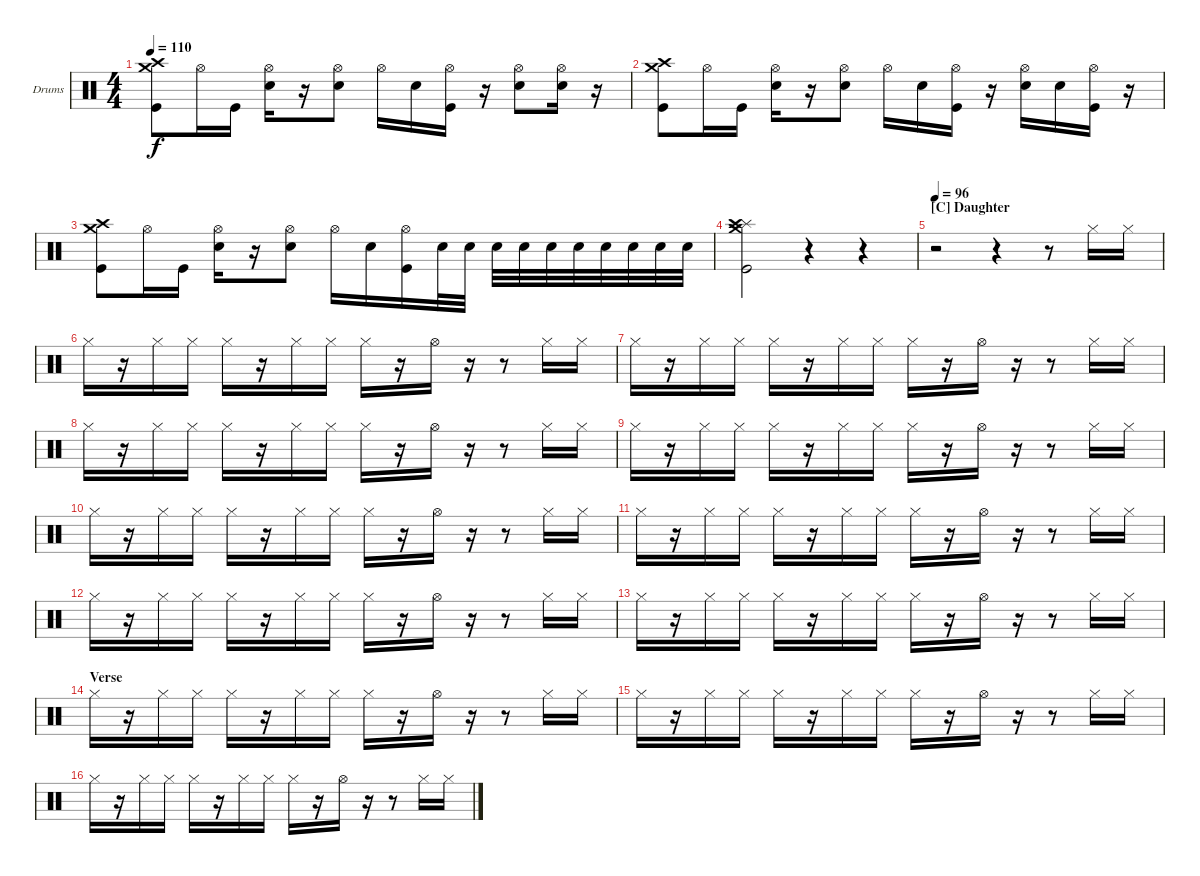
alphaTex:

\defaultSystemsLayout 4
\bracketExtendMode nobrackets
\firstSystemTrackNameOrientation horizontal
\otherSystemsTrackNameOrientation horizontal
\track ("Dave Abbruzzese" "Drums") {solo instrument percussion}
\staff {score}
\articulation defaults
\ts (4 4)
\tempo 110
\clef neutral
\ks c
("Crash high (hit)" "Kick (hit)" "Crash medium (hit)").8{dy f} "Hi-Hat (open)".16 "Kick (hit)".16 ("Snare (hit) 2" "Hi-Hat (open)").16 r.16 ("Snare (hit) 2" "Hi-Hat (open)").8 "Hi-Hat (open)".16 "Snare (hit) 2".16 ("Kick (hit)" "Hi-Hat (open)").16 r.16 ("Snare (hit) 2" "Hi-Hat (open)").8 ("Snare (hit) 2" "Hi-Hat (open)").16 r.16 |
("Crash high (hit)" "Kick (hit)" "Crash medium (hit)").8 "Hi-Hat (open)".16 "Kick (hit)".16 ("Snare (hit) 2" "Hi-Hat (open)").16 r.16 ("Snare (hit) 2" "Hi-Hat (open)").8 "Hi-Hat (open)".16 "Snare (hit) 2".16 ("Kick (hit)" "Hi-Hat (open)").16 r.16 ("Snare (hit) 2" "Hi-Hat (open)").16 "Snare (hit) 2".16 ("Kick (hit)" "Hi-Hat (open)").16 r.16 |
("Crash high (hit)" "Kick (hit)" "Crash medium (hit)").8 "Hi-Hat (open)".16 "Kick (hit)".16 ("Snare (hit) 2" "Hi-Hat (open)").16 r.16 ("Snare (hit) 2" "Hi-Hat (open)").8 "Hi-Hat (open)".16 "Snare (hit) 2".16 ("Kick (hit)" "Hi-Hat (open)").16 "Snare (hit) 2".32 "Snare (hit) 2".32 "Snare (hit) 2".32 "Snare (hit) 2".32 "Snare (hit) 2".32 "Snare (hit) 2".32 "Snare (hit) 2".32 "Snare (hit) 2".32 "Snare (hit) 2".32 "Snare (hit) 2".32 |
("Splash (hit)" "Kick (hit)" "Crash medium (hit)" "Crash high (hit)").2 r.4 r.4 |
\section ("C" "Daughter")
\tempo 96
r.2 r.4 r.8 "Hi-Hat (closed)".16 "Hi-Hat (closed)".16 |
"Hi-Hat (closed)".16 r.16 "Hi-Hat (closed)".16 "Hi-Hat (closed)".16 "Hi-Hat (closed)".16 r.16 "Hi-Hat (closed)".16 "Hi-Hat (closed)".16 "Hi-Hat (closed)".16 r.16 "Hi-Hat (open)".16 r.16 r.8 "Hi-Hat (closed)".16 "Hi-Hat (closed)".16 |
"Hi-Hat (closed)".16 r.16 "Hi-Hat (closed)".16 "Hi-Hat (closed)".16 "Hi-Hat (closed)".16 r.16 "Hi-Hat (closed)".16 "Hi-Hat (closed)".16 "Hi-Hat (closed)".16 r.16 "Hi-Hat (open)".16 r.16 r.8 "Hi-Hat (closed)".16 "Hi-Hat (closed)".16 |
"Hi-Hat (closed)".16 r.16 "Hi-Hat (closed)".16 "Hi-Hat (closed)".16 "Hi-Hat (closed)".16 r.16 "Hi-Hat (closed)".16 "Hi-Hat (closed)".16 "Hi-Hat (closed)".16 r.16 "Hi-Hat (open)".16 r.16 r.8 "Hi-Hat (closed)".16 "Hi-Hat (closed)".16 |
"Hi-Hat (closed)".16 r.16 "Hi-Hat (closed)".16 "Hi-Hat (closed)".16 "Hi-Hat (closed)".16 r.16 "Hi-Hat (closed)".16 "Hi-Hat (closed)".16 "Hi-Hat (closed)".16 r.16 "Hi-Hat (open)".16 r.16 r.8 "Hi-Hat (closed)".16 "Hi-Hat (closed)".16 |
"Hi-Hat (closed)".16 r.16 "Hi-Hat (closed)".16 "Hi-Hat (closed)".16 "Hi-Hat (closed)".16 r.16 "Hi-Hat (closed)".16 "Hi-Hat (closed)".16 "Hi-Hat (closed)".16 r.16 "Hi-Hat (open)".16 r.16 r.8 "Hi-Hat (closed)".16 "Hi-Hat (closed)".16 |
"Hi-Hat (closed)".16 r.16 "Hi-Hat (closed)".16 "Hi-Hat (closed)".16 "Hi-Hat (closed)".16 r.16 "Hi-Hat (closed)".16 "Hi-Hat (closed)".16 "Hi-Hat (closed)".16 r.16 "Hi-Hat (open)".16 r.16 r.8 "Hi-Hat (closed)".16 "Hi-Hat (closed)".16 |
"Hi-Hat (closed)".16 r.16 "Hi-Hat (closed)".16 "Hi-Hat (closed)".16 "Hi-Hat (closed)".16 r.16 "Hi-Hat (closed)".16 "Hi-Hat (closed)".16 "Hi-Hat (closed)".16 r.16 "Hi-Hat (open)".16 r.16 r.8 "Hi-Hat (closed)".16 "Hi-Hat (closed)".16 |
"Hi-Hat (closed)".16 r.16 "Hi-Hat (closed)".16 "Hi-Hat (closed)".16 "Hi-Hat (closed)".16 r.16 "Hi-Hat (closed)".16 "Hi-Hat (closed)".16 "Hi-Hat (closed)".16 r.16 "Hi-Hat (open)".16 r.16 r.8 "Hi-Hat (closed)".16 "Hi-Hat (closed)".16 |
\section ("" "Verse")
"Hi-Hat (closed)".16 r.16 "Hi-Hat (closed)".16 "Hi-Hat (closed)".16 "Hi-Hat (closed)".16 r.16 "Hi-Hat (closed)".16 "Hi-Hat (closed)".16 "Hi-Hat (closed)".16 r.16 "Hi-Hat (open)".16 r.16 r.8 "Hi-Hat (closed)".16 "Hi-Hat (closed)".16 |
"Hi-Hat (closed)".16 r.16 "Hi-Hat (closed)".16 "Hi-Hat (closed)".16 "Hi-Hat (closed)".16 r.16 "Hi-Hat (closed)".16 "Hi-Hat (closed)".16 "Hi-Hat (closed)".16 r.16 "Hi-Hat (open)".16 r.16 r.8 "Hi-Hat (closed)".16 "Hi-Hat (closed)".16 |
"Hi-Hat (closed)".16 r.16 "Hi-Hat (closed)".16 "Hi-Hat (closed)".16 "Hi-Hat (closed)".16 r.16 "Hi-Hat (closed)".16 "Hi-Hat (closed)".16 "Hi-Hat (closed)".16 r.16 "Hi-Hat (open)".16 r.16 r.8 "Hi-Hat (closed)".16 "Hi-Hat (closed)".16
